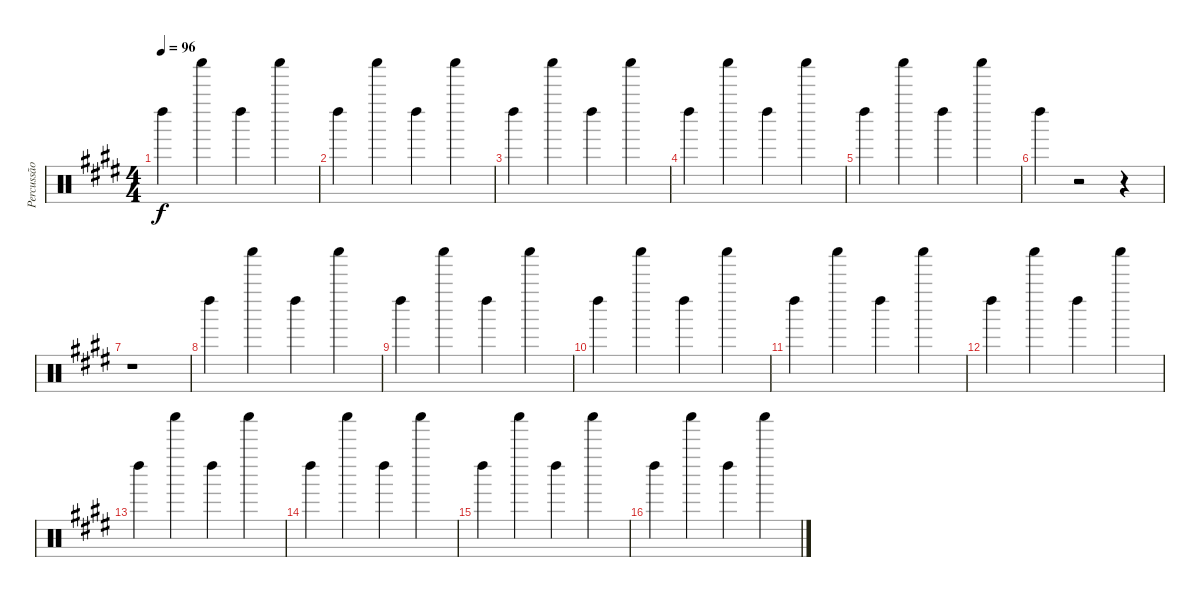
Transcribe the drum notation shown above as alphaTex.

\track ("Percussão" "Percussão") {instrument percussion}
\staff {score}
\articulation defaults
\ts (4 4)
\tempo 96
\clef neutral
\ks e "Left Maraca (hit)".4{dy f} "Shaker (hit)".4 "Left Maraca (hit)".4 "Shaker (hit)".4
|
"Left Maraca (hit)".4 "Shaker (hit)".4 "Left Maraca (hit)".4 "Shaker (hit)".4 |
"Left Maraca (hit)".4 "Shaker (hit)".4 "Left Maraca (hit)".4 "Shaker (hit)".4 |
"Left Maraca (hit)".4 "Shaker (hit)".4 "Left Maraca (hit)".4 "Shaker (hit)".4 |
"Left Maraca (hit)".4 "Shaker (hit)".4 "Left Maraca (hit)".4 "Shaker (hit)".4 |
"Left Maraca (hit)".4 r.2 r.4 |
r.1 |
"Left Maraca (hit)".4 "Shaker (hit)".4 "Left Maraca (hit)".4 "Shaker (hit)".4 |
"Left Maraca (hit)".4 "Shaker (hit)".4 "Left Maraca (hit)".4 "Shaker (hit)".4 |
"Left Maraca (hit)".4 "Shaker (hit)".4 "Left Maraca (hit)".4 "Shaker (hit)".4 |
"Left Maraca (hit)".4 "Shaker (hit)".4 "Left Maraca (hit)".4 "Shaker (hit)".4 |
"Left Maraca (hit)".4 "Shaker (hit)".4 "Left Maraca (hit)".4 "Shaker (hit)".4 |
"Left Maraca (hit)".4 "Shaker (hit)".4 "Left Maraca (hit)".4 "Shaker (hit)".4 |
"Left Maraca (hit)".4 "Shaker (hit)".4 "Left Maraca (hit)".4 "Shaker (hit)".4 |
"Left Maraca (hit)".4 "Shaker (hit)".4 "Left Maraca (hit)".4 "Shaker (hit)".4 |
"Left Maraca (hit)".4 "Shaker (hit)".4 "Left Maraca (hit)".4 "Shaker (hit)".4
